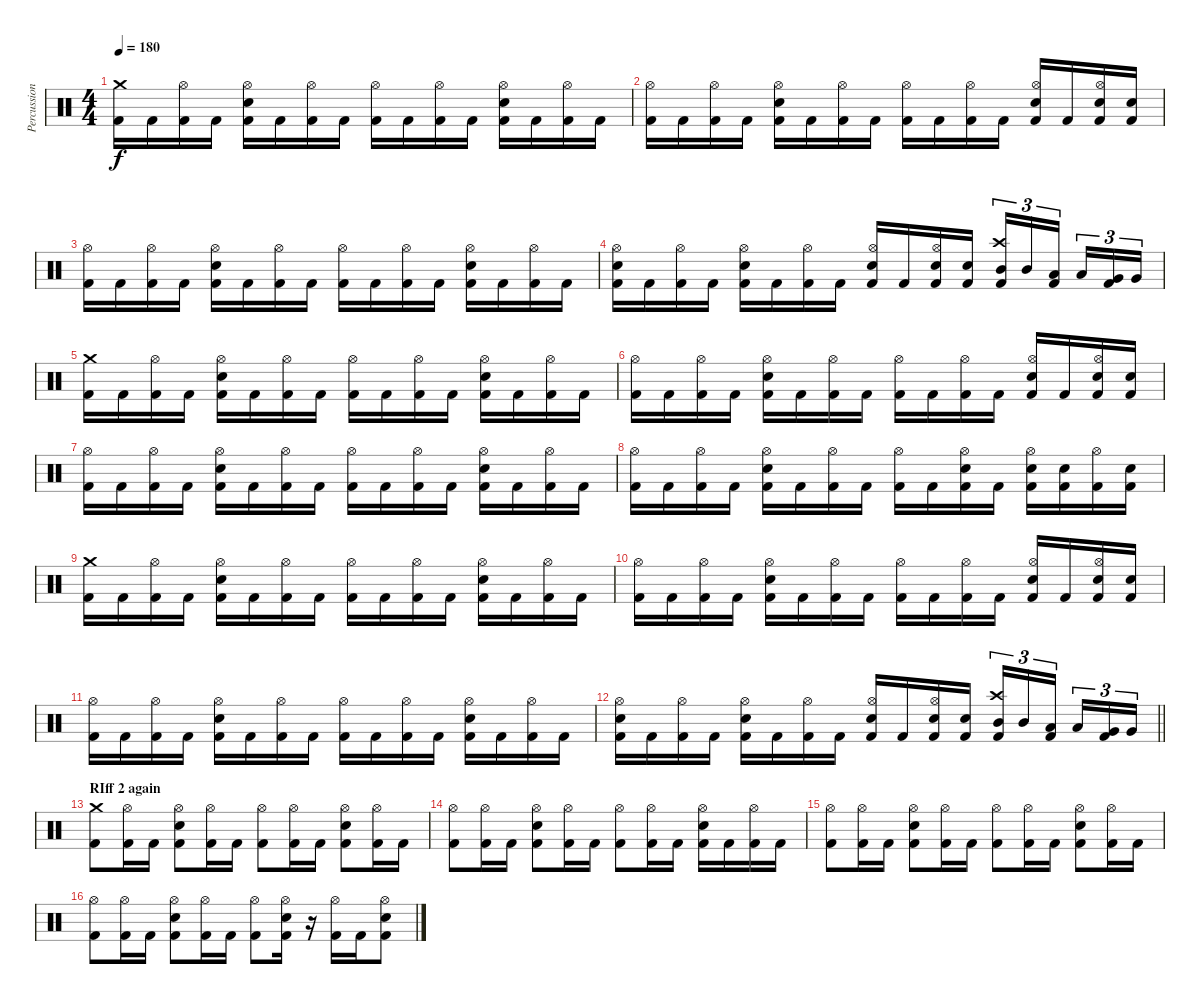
\track ("Percussion" "Percussion") {instrument percussion}
\staff {score}
\articulation defaults
\ts (4 4)
\tempo 180
\clef neutral
\ks c
("Crash medium (hit)" "Kick (hit) 2").16{dy f} "Kick (hit) 2".16 ("Hi-Hat (open)" "Kick (hit) 2").16 "Kick (hit) 2".16 ("Kick (hit) 2" "Hi-Hat (open)" "Snare (hit) 2").16 "Kick (hit) 2".16 ("Hi-Hat (open)" "Kick (hit) 2").16 "Kick (hit) 2".16 ("Hi-Hat (open)" "Kick (hit) 2").16 "Kick (hit) 2".16 ("Hi-Hat (open)" "Kick (hit) 2").16 "Kick (hit) 2".16 ("Kick (hit) 2" "Hi-Hat (open)" "Snare (hit) 2").16 "Kick (hit) 2".16 ("Hi-Hat (open)" "Kick (hit) 2").16 "Kick (hit) 2".16 |
("Hi-Hat (open)" "Kick (hit) 2").16 "Kick (hit) 2".16 ("Hi-Hat (open)" "Kick (hit) 2").16 "Kick (hit) 2".16 ("Kick (hit) 2" "Hi-Hat (open)" "Snare (hit) 2").16 "Kick (hit) 2".16 ("Hi-Hat (open)" "Kick (hit) 2").16 "Kick (hit) 2".16 ("Hi-Hat (open)" "Kick (hit) 2").16 "Kick (hit) 2".16 ("Hi-Hat (open)" "Kick (hit) 2").16 "Kick (hit) 2".16 ("Kick (hit) 2" "Hi-Hat (open)" "Snare (hit) 2").16 "Kick (hit) 2".16 ("Kick (hit) 2" "Hi-Hat (open)" "Snare (hit) 2").16 ("Kick (hit) 2" "Snare (hit) 2").16 |
("Hi-Hat (open)" "Kick (hit) 2").16 "Kick (hit) 2".16 ("Hi-Hat (open)" "Kick (hit) 2").16 "Kick (hit) 2".16 ("Kick (hit) 2" "Hi-Hat (open)" "Snare (hit) 2").16 "Kick (hit) 2".16 ("Hi-Hat (open)" "Kick (hit) 2").16 "Kick (hit) 2".16 ("Hi-Hat (open)" "Kick (hit) 2").16 "Kick (hit) 2".16 ("Hi-Hat (open)" "Kick (hit) 2").16 "Kick (hit) 2".16 ("Kick (hit) 2" "Hi-Hat (open)" "Snare (hit) 2").16 "Kick (hit) 2".16 ("Hi-Hat (open)" "Kick (hit) 2").16 "Kick (hit) 2".16 |
("Kick (hit) 2" "Hi-Hat (open)" "Snare (hit) 2").16 "Kick (hit) 2".16 ("Hi-Hat (open)" "Kick (hit) 2").16 "Kick (hit) 2".16 ("Kick (hit) 2" "Hi-Hat (open)" "Snare (hit) 2").16 "Kick (hit) 2".16 ("Hi-Hat (open)" "Kick (hit) 2").16 "Kick (hit) 2".16 ("Kick (hit) 2" "Hi-Hat (open)" "Snare (hit) 2").16 "Kick (hit) 2".16 ("Kick (hit) 2" "Hi-Hat (open)" "Snare (hit) 2").16 ("Kick (hit) 2" "Snare (hit) 2").16 ("Kick (hit) 2" "Crash high (hit)" "Mid Tom (hit)").16{tu (3 2)} "Mid Tom (hit)".16{tu (3 2)} ("Kick (hit) 2" "Low Tom (hit)").16{tu (3 2)} "Low Tom (hit)".16{tu (3 2)} ("Kick (hit) 2" "Very Low Tom (hit)").16{tu (3 2)} "Very Low Tom (hit)".16{tu (3 2)} |
("Crash medium (hit)" "Kick (hit) 2").16 "Kick (hit) 2".16 ("Hi-Hat (open)" "Kick (hit) 2").16 "Kick (hit) 2".16 ("Kick (hit) 2" "Hi-Hat (open)" "Snare (hit) 2").16 "Kick (hit) 2".16 ("Hi-Hat (open)" "Kick (hit) 2").16 "Kick (hit) 2".16 ("Hi-Hat (open)" "Kick (hit) 2").16 "Kick (hit) 2".16 ("Hi-Hat (open)" "Kick (hit) 2").16 "Kick (hit) 2".16 ("Kick (hit) 2" "Hi-Hat (open)" "Snare (hit) 2").16 "Kick (hit) 2".16 ("Hi-Hat (open)" "Kick (hit) 2").16 "Kick (hit) 2".16 |
("Hi-Hat (open)" "Kick (hit) 2").16 "Kick (hit) 2".16 ("Hi-Hat (open)" "Kick (hit) 2").16 "Kick (hit) 2".16 ("Kick (hit) 2" "Hi-Hat (open)" "Snare (hit) 2").16 "Kick (hit) 2".16 ("Hi-Hat (open)" "Kick (hit) 2").16 "Kick (hit) 2".16 ("Hi-Hat (open)" "Kick (hit) 2").16 "Kick (hit) 2".16 ("Hi-Hat (open)" "Kick (hit) 2").16 "Kick (hit) 2".16 ("Kick (hit) 2" "Hi-Hat (open)" "Snare (hit) 2").16 "Kick (hit) 2".16 ("Kick (hit) 2" "Hi-Hat (open)" "Snare (hit) 2").16 ("Kick (hit) 2" "Snare (hit) 2").16 |
("Hi-Hat (open)" "Kick (hit) 2").16 "Kick (hit) 2".16 ("Hi-Hat (open)" "Kick (hit) 2").16 "Kick (hit) 2".16 ("Kick (hit) 2" "Hi-Hat (open)" "Snare (hit) 2").16 "Kick (hit) 2".16 ("Hi-Hat (open)" "Kick (hit) 2").16 "Kick (hit) 2".16 ("Hi-Hat (open)" "Kick (hit) 2").16 "Kick (hit) 2".16 ("Hi-Hat (open)" "Kick (hit) 2").16 "Kick (hit) 2".16 ("Kick (hit) 2" "Hi-Hat (open)" "Snare (hit) 2").16 "Kick (hit) 2".16 ("Hi-Hat (open)" "Kick (hit) 2").16 "Kick (hit) 2".16 |
("Hi-Hat (open)" "Kick (hit) 2").16 "Kick (hit) 2".16 ("Hi-Hat (open)" "Kick (hit) 2").16 "Kick (hit) 2".16 ("Kick (hit) 2" "Hi-Hat (open)" "Snare (hit) 2").16 "Kick (hit) 2".16 ("Hi-Hat (open)" "Kick (hit) 2").16 "Kick (hit) 2".16 ("Hi-Hat (open)" "Kick (hit) 2").16 "Kick (hit) 2".16 ("Kick (hit) 2" "Hi-Hat (open)" "Snare (hit) 2").16 "Kick (hit) 2".16 ("Kick (hit) 2" "Hi-Hat (open)" "Snare (hit) 2").16 ("Kick (hit) 2" "Snare (hit) 2").16 ("Hi-Hat (open)" "Kick (hit) 2").16 ("Kick (hit) 2" "Snare (hit) 2").16 |
("Crash medium (hit)" "Kick (hit) 2").16 "Kick (hit) 2".16 ("Hi-Hat (open)" "Kick (hit) 2").16 "Kick (hit) 2".16 ("Kick (hit) 2" "Hi-Hat (open)" "Snare (hit) 2").16 "Kick (hit) 2".16 ("Hi-Hat (open)" "Kick (hit) 2").16 "Kick (hit) 2".16 ("Hi-Hat (open)" "Kick (hit) 2").16 "Kick (hit) 2".16 ("Hi-Hat (open)" "Kick (hit) 2").16 "Kick (hit) 2".16 ("Kick (hit) 2" "Hi-Hat (open)" "Snare (hit) 2").16 "Kick (hit) 2".16 ("Hi-Hat (open)" "Kick (hit) 2").16 "Kick (hit) 2".16 |
("Hi-Hat (open)" "Kick (hit) 2").16 "Kick (hit) 2".16 ("Hi-Hat (open)" "Kick (hit) 2").16 "Kick (hit) 2".16 ("Kick (hit) 2" "Hi-Hat (open)" "Snare (hit) 2").16 "Kick (hit) 2".16 ("Hi-Hat (open)" "Kick (hit) 2").16 "Kick (hit) 2".16 ("Hi-Hat (open)" "Kick (hit) 2").16 "Kick (hit) 2".16 ("Hi-Hat (open)" "Kick (hit) 2").16 "Kick (hit) 2".16 ("Kick (hit) 2" "Hi-Hat (open)" "Snare (hit) 2").16 "Kick (hit) 2".16 ("Kick (hit) 2" "Hi-Hat (open)" "Snare (hit) 2").16 ("Kick (hit) 2" "Snare (hit) 2").16 |
("Hi-Hat (open)" "Kick (hit) 2").16 "Kick (hit) 2".16 ("Hi-Hat (open)" "Kick (hit) 2").16 "Kick (hit) 2".16 ("Kick (hit) 2" "Hi-Hat (open)" "Snare (hit) 2").16 "Kick (hit) 2".16 ("Hi-Hat (open)" "Kick (hit) 2").16 "Kick (hit) 2".16 ("Hi-Hat (open)" "Kick (hit) 2").16 "Kick (hit) 2".16 ("Hi-Hat (open)" "Kick (hit) 2").16 "Kick (hit) 2".16 ("Kick (hit) 2" "Hi-Hat (open)" "Snare (hit) 2").16 "Kick (hit) 2".16 ("Hi-Hat (open)" "Kick (hit) 2").16 "Kick (hit) 2".16 |
\barLineRight lightlight
("Kick (hit) 2" "Hi-Hat (open)" "Snare (hit) 2").16 "Kick (hit) 2".16 ("Hi-Hat (open)" "Kick (hit) 2").16 "Kick (hit) 2".16 ("Kick (hit) 2" "Hi-Hat (open)" "Snare (hit) 2").16 "Kick (hit) 2".16 ("Hi-Hat (open)" "Kick (hit) 2").16 "Kick (hit) 2".16 ("Kick (hit) 2" "Hi-Hat (open)" "Snare (hit) 2").16 "Kick (hit) 2".16 ("Kick (hit) 2" "Hi-Hat (open)" "Snare (hit) 2").16 ("Kick (hit) 2" "Snare (hit) 2").16 ("Kick (hit) 2" "Crash high (hit)" "Mid Tom (hit)").16{tu (3 2)} "Mid Tom (hit)".16{tu (3 2)} ("Kick (hit) 2" "Low Tom (hit)").16{tu (3 2)} "Low Tom (hit)".16{tu (3 2)} ("Kick (hit) 2" "Very Low Tom (hit)").16{tu (3 2)} "Very Low Tom (hit)".16{tu (3 2)} |
\section ("" "RIff 2 again")
("Crash medium (hit)" "Kick (hit) 2").8 ("Hi-Hat (open)" "Kick (hit) 2").16 "Kick (hit) 2".16 ("Kick (hit) 2" "Hi-Hat (open)" "Snare (hit) 2").8 ("Hi-Hat (open)" "Kick (hit) 2").16 "Kick (hit) 2".16 ("Hi-Hat (open)" "Kick (hit) 2").8 ("Hi-Hat (open)" "Kick (hit) 2").16 "Kick (hit) 2".16 ("Kick (hit) 2" "Hi-Hat (open)" "Snare (hit) 2").8 ("Hi-Hat (open)" "Kick (hit) 2").16 "Kick (hit) 2".16 |
("Hi-Hat (open)" "Kick (hit) 2").8 ("Hi-Hat (open)" "Kick (hit) 2").16 "Kick (hit) 2".16 ("Kick (hit) 2" "Hi-Hat (open)" "Snare (hit) 2").8 ("Hi-Hat (open)" "Kick (hit) 2").16 "Kick (hit) 2".16 ("Hi-Hat (open)" "Kick (hit) 2").8 ("Hi-Hat (open)" "Kick (hit) 2").16 "Kick (hit) 2".16 ("Kick (hit) 2" "Hi-Hat (open)" "Snare (hit) 2").16 "Kick (hit) 2".16 ("Hi-Hat (open)" "Kick (hit) 2").16 "Kick (hit) 2".16 |
("Hi-Hat (open)" "Kick (hit) 2").8 ("Hi-Hat (open)" "Kick (hit) 2").16 "Kick (hit) 2".16 ("Kick (hit) 2" "Hi-Hat (open)" "Snare (hit) 2").8 ("Hi-Hat (open)" "Kick (hit) 2").16 "Kick (hit) 2".16 ("Hi-Hat (open)" "Kick (hit) 2").8 ("Hi-Hat (open)" "Kick (hit) 2").16 "Kick (hit) 2".16 ("Kick (hit) 2" "Hi-Hat (open)" "Snare (hit) 2").8 ("Hi-Hat (open)" "Kick (hit) 2").16 "Kick (hit) 2".16 |
("Hi-Hat (open)" "Kick (hit) 2").8 ("Hi-Hat (open)" "Kick (hit) 2").16 "Kick (hit) 2".16 ("Kick (hit) 2" "Hi-Hat (open)" "Snare (hit) 2").8 ("Hi-Hat (open)" "Kick (hit) 2").16 "Kick (hit) 2".16 ("Hi-Hat (open)" "Kick (hit) 2").8 ("Kick (hit) 2" "Hi-Hat (open)" "Snare (hit) 2").16 r.16 ("Hi-Hat (open)" "Kick (hit) 2").16 "Kick (hit) 2".16 ("Kick (hit) 2" "Hi-Hat (open)" "Snare (hit) 2").8
